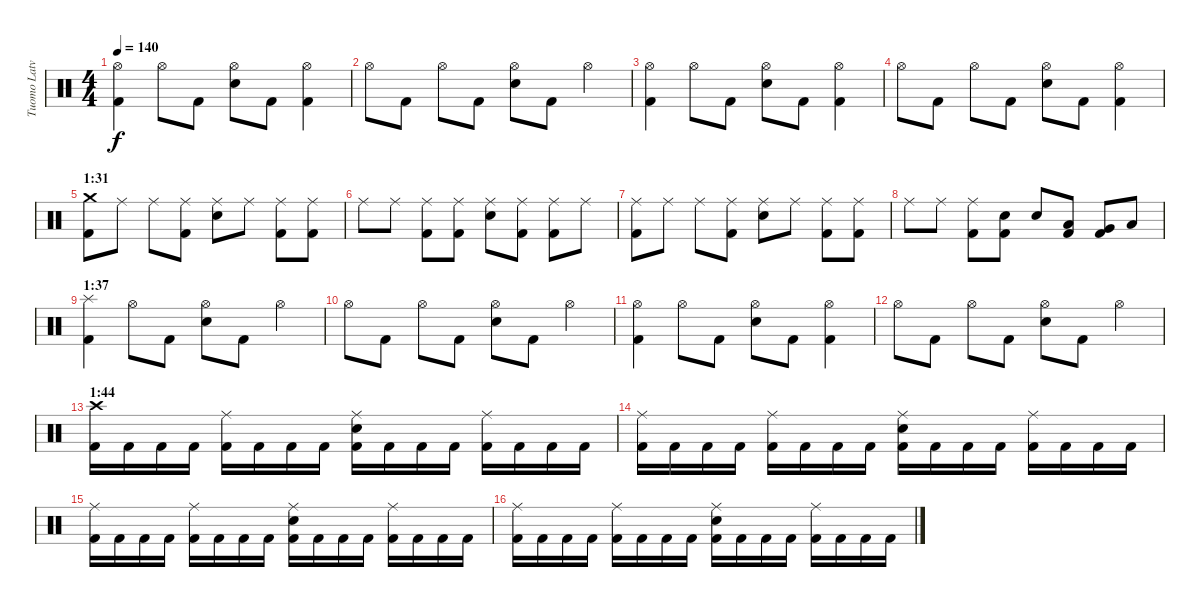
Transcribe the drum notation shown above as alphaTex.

\track ("Tuomo Latvala" "Tuomo Latv") {instrument percussion}
\staff {score}
\articulation defaults
\ts (4 4)
\tempo 140
\clef neutral
\ks c
("Hi-Hat (open)" "Kick (hit) 2").4{dy f} "Hi-Hat (open)".8 "Kick (hit) 2".8 ("Hi-Hat (open)" "Electric Snare (hit)").8 "Kick (hit) 2".8 ("Hi-Hat (open)" "Kick (hit) 2").4 |
"Hi-Hat (open)".8 "Kick (hit) 2".8 "Hi-Hat (open)".8 "Kick (hit) 2".8 ("Hi-Hat (open)" "Electric Snare (hit)").8 "Kick (hit) 2".8 "Hi-Hat (open)".4 |
("Hi-Hat (open)" "Kick (hit) 2").4 "Hi-Hat (open)".8 "Kick (hit) 2".8 ("Hi-Hat (open)" "Electric Snare (hit)").8 "Kick (hit) 2".8 ("Hi-Hat (open)" "Kick (hit) 2").4 |
"Hi-Hat (open)".8 "Kick (hit) 2".8 "Hi-Hat (open)".8 "Kick (hit) 2".8 ("Hi-Hat (open)" "Electric Snare (hit)").8 "Kick (hit) 2".8 ("Hi-Hat (open)" "Kick (hit) 2").4 |
\section ("" "1:31")
("Crash medium (hit)" "Kick (hit) 2").8 "Ride (middle)".8 "Ride (middle)".8 ("Ride (middle)" "Kick (hit) 2").8 ("Ride (middle)" "Electric Snare (hit)").8 "Ride (middle)".8 ("Ride (middle)" "Kick (hit) 2").8 ("Ride (middle)" "Kick (hit) 2").8 |
"Ride (middle)".8 "Ride (middle)".8 ("Ride (middle)" "Kick (hit) 2").8 ("Ride (middle)" "Kick (hit) 2").8 ("Ride (middle)" "Electric Snare (hit)").8 ("Ride (middle)" "Kick (hit) 2").8 ("Ride (middle)" "Kick (hit) 2").8 "Ride (middle)".8 |
("Ride (middle)" "Kick (hit) 2").8 "Ride (middle)".8 "Ride (middle)".8 ("Ride (middle)" "Kick (hit) 2").8 ("Ride (middle)" "Electric Snare (hit)").8 "Ride (middle)".8 ("Ride (middle)" "Kick (hit) 2").8 ("Ride (middle)" "Kick (hit) 2").8 |
"Ride (middle)".8 "Ride (middle)".8 ("Ride (middle)" "Kick (hit) 2").8 ("Electric Snare (hit)" "Kick (hit) 2").8 "Electric Snare (hit)".8 ("Low Tom (hit)" "Kick (hit) 2").8 ("Very Low Tom (hit)" "Kick (hit) 2").8 "Low Floor Tom (hit)".8 |
\section ("" "1:37")
("Splash (hit)" "Kick (hit) 2").4 "Hi-Hat (open)".8 "Kick (hit) 2".8 ("Hi-Hat (open)" "Electric Snare (hit)").8 "Kick (hit) 2".8 "Hi-Hat (open)".4 |
"Hi-Hat (open)".8 "Kick (hit) 2".8 "Hi-Hat (open)".8 "Kick (hit) 2".8 ("Hi-Hat (open)" "Electric Snare (hit)").8 "Kick (hit) 2".8 "Hi-Hat (open)".4 |
("Hi-Hat (open)" "Kick (hit) 2").4 "Hi-Hat (open)".8 "Kick (hit) 2".8 ("Hi-Hat (open)" "Electric Snare (hit)").8 "Kick (hit) 2".8 ("Hi-Hat (open)" "Kick (hit) 2").4 |
"Hi-Hat (open)".8 "Kick (hit) 2".8 "Hi-Hat (open)".8 "Kick (hit) 2".8 ("Hi-Hat (open)" "Electric Snare (hit)").8 "Kick (hit) 2".8 "Hi-Hat (open)".4 |
\section ("" "1:44")
("Crash high (hit)" "Kick (hit) 2").16 "Kick (hit) 2".16 "Kick (hit) 2".16 "Kick (hit) 2".16 ("Ride (middle)" "Kick (hit) 2").16 "Kick (hit) 2".16 "Kick (hit) 2".16 "Kick (hit) 2".16 ("Ride (middle)" "Electric Snare (hit)" "Kick (hit) 2").16 "Kick (hit) 2".16 "Kick (hit) 2".16 "Kick (hit) 2".16 ("Ride (middle)" "Kick (hit) 2").16 "Kick (hit) 2".16 "Kick (hit) 2".16 "Kick (hit) 2".16 |
("Ride (middle)" "Kick (hit) 2").16 "Kick (hit) 2".16 "Kick (hit) 2".16 "Kick (hit) 2".16 ("Ride (middle)" "Kick (hit) 2").16 "Kick (hit) 2".16 "Kick (hit) 2".16 "Kick (hit) 2".16 ("Ride (middle)" "Electric Snare (hit)" "Kick (hit) 2").16 "Kick (hit) 2".16 "Kick (hit) 2".16 "Kick (hit) 2".16 ("Ride (middle)" "Kick (hit) 2").16 "Kick (hit) 2".16 "Kick (hit) 2".16 "Kick (hit) 2".16 |
("Ride (middle)" "Kick (hit) 2").16 "Kick (hit) 2".16 "Kick (hit) 2".16 "Kick (hit) 2".16 ("Ride (middle)" "Kick (hit) 2").16 "Kick (hit) 2".16 "Kick (hit) 2".16 "Kick (hit) 2".16 ("Ride (middle)" "Electric Snare (hit)" "Kick (hit) 2").16 "Kick (hit) 2".16 "Kick (hit) 2".16 "Kick (hit) 2".16 ("Ride (middle)" "Kick (hit) 2").16 "Kick (hit) 2".16 "Kick (hit) 2".16 "Kick (hit) 2".16 |
("Ride (middle)" "Kick (hit) 2").16 "Kick (hit) 2".16 "Kick (hit) 2".16 "Kick (hit) 2".16 ("Ride (middle)" "Kick (hit) 2").16 "Kick (hit) 2".16 "Kick (hit) 2".16 "Kick (hit) 2".16 ("Ride (middle)" "Electric Snare (hit)" "Kick (hit) 2").16 "Kick (hit) 2".16 "Kick (hit) 2".16 "Kick (hit) 2".16 ("Ride (middle)" "Kick (hit) 2").16 "Kick (hit) 2".16 "Kick (hit) 2".16 "Kick (hit) 2".16
